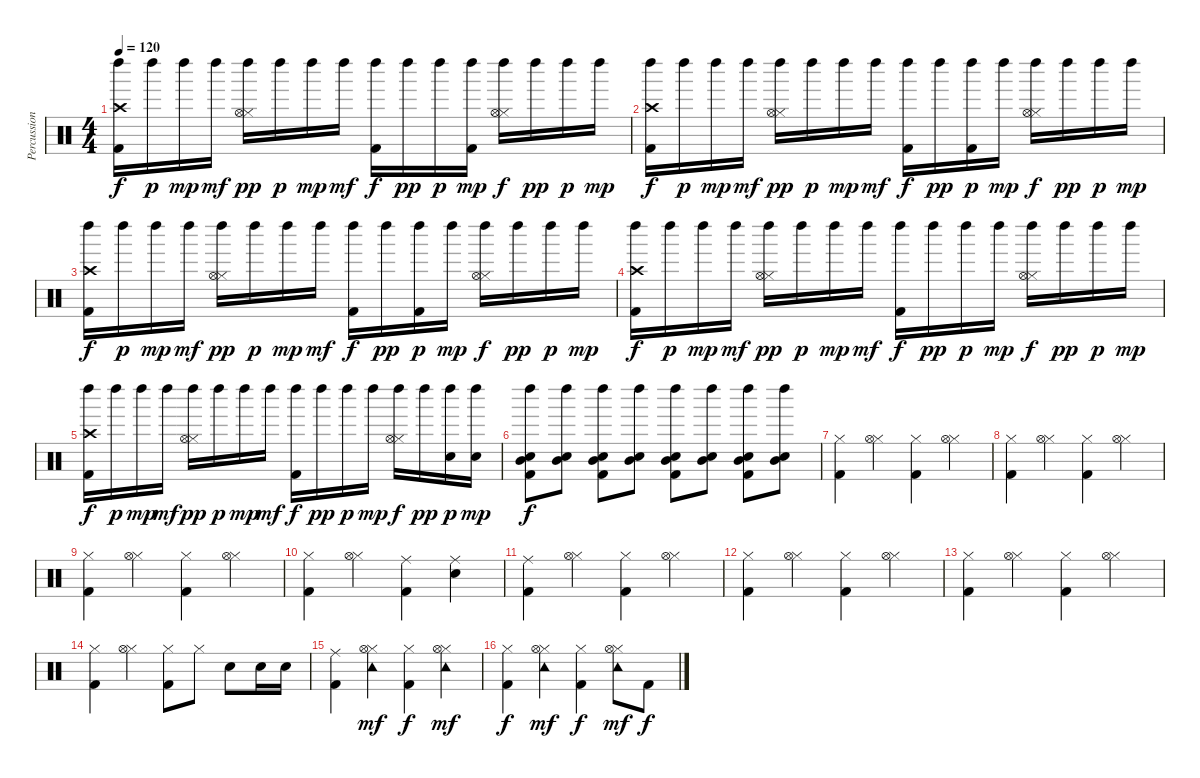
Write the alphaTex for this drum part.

\track ("Percussion" "Percussion") {instrument percussion}
\staff {score}
\articulation defaults
\ts (4 4)
\tempo 120
\clef neutral
\ks c
("Kick (hit) 2" "Crash high (hit)" "Left Maraca (hit)").16{dy f} "Left Maraca (hit)".16{dy p} "Left Maraca (hit)".16{dy mp} "Left Maraca (hit)".16{dy mf} ("Hi-Hat (closed)" "Hi-Hat (open)" "Left Maraca (hit)").16{dy pp} "Left Maraca (hit)".16{dy p} "Left Maraca (hit)".16{dy mp} "Left Maraca (hit)".16{dy mf} ("Kick (hit) 2" "Left Maraca (hit)").16{dy f} "Left Maraca (hit)".16{dy pp} "Left Maraca (hit)".16{dy p} ("Kick (hit) 2" "Left Maraca (hit)").16{dy mp} ("Hi-Hat (closed)" "Hi-Hat (open)" "Left Maraca (hit)").16{dy f} "Left Maraca (hit)".16{dy pp} "Left Maraca (hit)".16{dy p} "Left Maraca (hit)".16{dy mp} |
("Kick (hit) 2" "Crash high (hit)" "Left Maraca (hit)").16{dy f} "Left Maraca (hit)".16{dy p} "Left Maraca (hit)".16{dy mp} "Left Maraca (hit)".16{dy mf} ("Hi-Hat (closed)" "Hi-Hat (open)" "Left Maraca (hit)").16{dy pp} "Left Maraca (hit)".16{dy p} "Left Maraca (hit)".16{dy mp} "Left Maraca (hit)".16{dy mf} ("Kick (hit) 2" "Left Maraca (hit)").16{dy f} "Left Maraca (hit)".16{dy pp} ("Kick (hit) 2" "Left Maraca (hit)").16{dy p} "Left Maraca (hit)".16{dy mp} ("Hi-Hat (closed)" "Hi-Hat (open)" "Left Maraca (hit)").16{dy f} "Left Maraca (hit)".16{dy pp} "Left Maraca (hit)".16{dy p} "Left Maraca (hit)".16{dy mp} |
("Kick (hit) 2" "Crash high (hit)" "Left Maraca (hit)").16{dy f} "Left Maraca (hit)".16{dy p} "Left Maraca (hit)".16{dy mp} "Left Maraca (hit)".16{dy mf} ("Hi-Hat (closed)" "Hi-Hat (open)" "Left Maraca (hit)").16{dy pp} "Left Maraca (hit)".16{dy p} "Left Maraca (hit)".16{dy mp} "Left Maraca (hit)".16{dy mf} ("Kick (hit) 2" "Left Maraca (hit)").16{dy f} "Left Maraca (hit)".16{dy pp} ("Kick (hit) 2" "Left Maraca (hit)").16{dy p} "Left Maraca (hit)".16{dy mp} ("Hi-Hat (closed)" "Hi-Hat (open)" "Left Maraca (hit)").16{dy f} "Left Maraca (hit)".16{dy pp} "Left Maraca (hit)".16{dy p} "Left Maraca (hit)".16{dy mp} |
("Kick (hit) 2" "Crash high (hit)" "Left Maraca (hit)").16{dy f} "Left Maraca (hit)".16{dy p} "Left Maraca (hit)".16{dy mp} "Left Maraca (hit)".16{dy mf} ("Hi-Hat (closed)" "Hi-Hat (open)" "Left Maraca (hit)").16{dy pp} "Left Maraca (hit)".16{dy p} "Left Maraca (hit)".16{dy mp} "Left Maraca (hit)".16{dy mf} ("Kick (hit) 2" "Left Maraca (hit)").16{dy f} "Left Maraca (hit)".16{dy pp} "Left Maraca (hit)".16{dy p} "Left Maraca (hit)".16{dy mp} ("Hi-Hat (closed)" "Hi-Hat (open)" "Left Maraca (hit)").16{dy f} "Left Maraca (hit)".16{dy pp} "Left Maraca (hit)".16{dy p} "Left Maraca (hit)".16{dy mp} |
("Kick (hit) 2" "Crash high (hit)" "Left Maraca (hit)").16{dy f} "Left Maraca (hit)".16{dy p} "Left Maraca (hit)".16{dy mp} "Left Maraca (hit)".16{dy mf} ("Hi-Hat (closed)" "Hi-Hat (open)" "Left Maraca (hit)").16{dy pp} "Left Maraca (hit)".16{dy p} "Left Maraca (hit)".16{dy mp} "Left Maraca (hit)".16{dy mf} ("Kick (hit) 2" "Left Maraca (hit)").16{dy f} "Left Maraca (hit)".16{dy pp} "Left Maraca (hit)".16{dy p} "Left Maraca (hit)".16{dy mp} ("Hi-Hat (closed)" "Hi-Hat (open)" "Left Maraca (hit)").16{dy f} "Left Maraca (hit)".16{dy pp} ("Snare (hit) 2" "Left Maraca (hit)").16{dy p} ("Snare (hit) 2" "Left Maraca (hit)").16{dy mp} |
("Kick (hit) 2" "Snare (hit) 2" "Mid Tom (hit)" "Left Maraca (hit)").8{dy f} ("Snare (hit) 2" "Mid Tom (hit)" "Left Maraca (hit)").8 ("Kick (hit) 2" "Snare (hit) 2" "Mid Tom (hit)" "Left Maraca (hit)").8 ("Snare (hit) 2" "Mid Tom (hit)" "Left Maraca (hit)").8 ("Kick (hit) 2" "Snare (hit) 2" "Mid Tom (hit)" "Left Maraca (hit)").8 ("Snare (hit) 2" "Mid Tom (hit)" "Left Maraca (hit)").8 ("Kick (hit) 2" "Snare (hit) 2" "Mid Tom (hit)" "Left Maraca (hit)").8 ("Snare (hit) 2" "Mid Tom (hit)" "Left Maraca (hit)").8 |
("Kick (hit) 2" "Hi-Hat (closed)").4 ("Hi-Hat (closed)" "Hi-Hat (open)").4 ("Kick (hit) 2" "Hi-Hat (closed)").4 ("Hi-Hat (closed)" "Hi-Hat (open)").4 |
("Kick (hit) 2" "Hi-Hat (closed)").4 ("Hi-Hat (closed)" "Hi-Hat (open)").4 ("Kick (hit) 2" "Hi-Hat (closed)").4 ("Hi-Hat (closed)" "Hi-Hat (open)").4 |
("Kick (hit) 2" "Hi-Hat (closed)").4 ("Hi-Hat (closed)" "Hi-Hat (open)").4 ("Kick (hit) 2" "Hi-Hat (closed)").4 ("Hi-Hat (closed)" "Hi-Hat (open)").4 |
("Kick (hit) 2" "Hi-Hat (closed)").4 ("Hi-Hat (closed)" "Hi-Hat (open)").4 ("Kick (hit) 2" "Ride (middle)").4 ("Snare (hit) 2" "Ride (middle)").4 |
("Kick (hit) 2" "Ride (middle)").4 ("Hi-Hat (closed)" "Hi-Hat (open)").4 ("Kick (hit) 2" "Hi-Hat (closed)").4 ("Hi-Hat (closed)" "Hi-Hat (open)").4 |
("Kick (hit) 2" "Hi-Hat (closed)").4 ("Hi-Hat (closed)" "Hi-Hat (open)").4 ("Kick (hit) 2" "Hi-Hat (closed)").4 ("Hi-Hat (closed)" "Hi-Hat (open)").4 |
("Kick (hit) 2" "Hi-Hat (closed)").4 ("Hi-Hat (closed)" "Hi-Hat (open)").4 ("Kick (hit) 2" "Hi-Hat (closed)").4 ("Hi-Hat (closed)" "Hi-Hat (open)").4 |
("Kick (hit) 2" "Hi-Hat (closed)").4 ("Hi-Hat (closed)" "Hi-Hat (open)").4 ("Kick (hit) 2" "Hi-Hat (closed)").8 "Hi-Hat (closed)".8 "Snare (hit) 2".8 "Snare (hit) 2".16 "Snare (hit) 2".16 |
("Kick (hit) 2" "Ride (middle)").4 ("Hi-Hat (closed)" "Hi-Hat (open)" "Tambourine (hit)").4{dy mf} ("Kick (hit) 2" "Hi-Hat (closed)").4{dy f} ("Hi-Hat (closed)" "Hi-Hat (open)" "Tambourine (hit)").4{dy mf} |
("Kick (hit) 2" "Hi-Hat (closed)").4{dy f} ("Hi-Hat (closed)" "Hi-Hat (open)" "Tambourine (hit)").4{dy mf} ("Kick (hit) 2" "Hi-Hat (closed)").4{dy f} ("Hi-Hat (closed)" "Hi-Hat (open)" "Tambourine (hit)").8{dy mf} "Kick (hit) 2".8{dy f}
